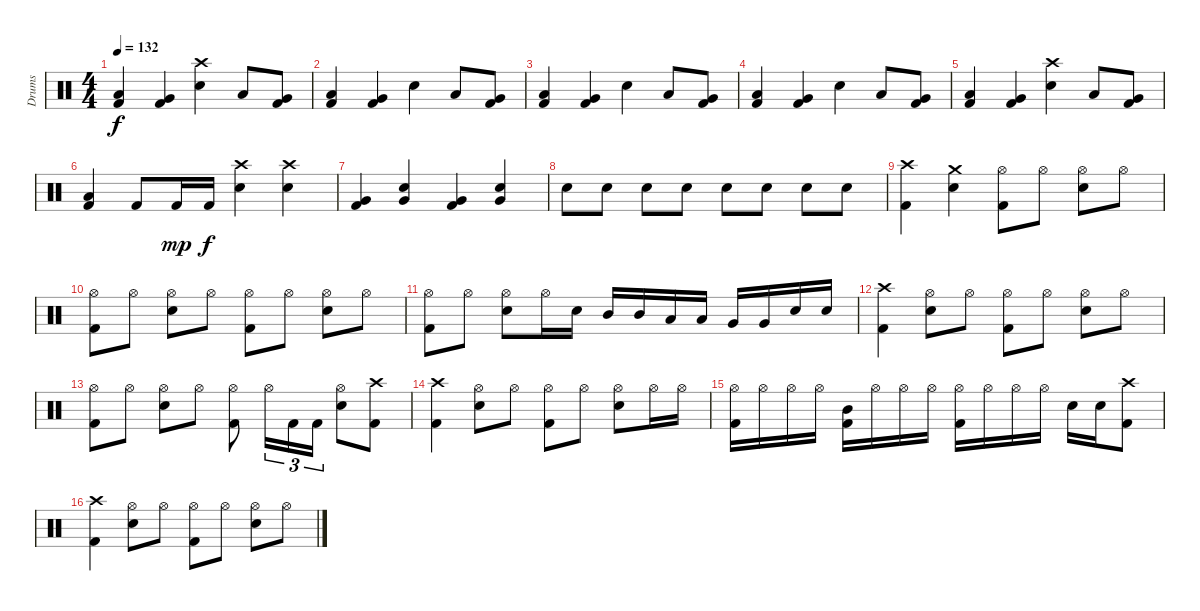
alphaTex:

\track ("Drums" "Drums") {instrument percussion}
\staff {score}
\articulation defaults
\ts (4 4)
\tempo 132
\clef neutral
\ks c
("Low Floor Tom (hit)" "Kick (hit) 2").4{dy f} ("Very Low Tom (hit)" "Kick (hit) 2").4 ("Crash high (hit)" "Snare (hit) 2").4 "Low Tom (hit)".8 ("Very Low Tom (hit)" "Kick (hit) 2").8 |
("Low Floor Tom (hit)" "Kick (hit) 2").4 ("Very Low Tom (hit)" "Kick (hit) 2").4 "Snare (hit) 2".4 "Low Tom (hit)".8 ("Very Low Tom (hit)" "Kick (hit) 2").8 |
("Low Floor Tom (hit)" "Kick (hit) 2").4 ("Very Low Tom (hit)" "Kick (hit) 2").4 "Snare (hit) 2".4 "Low Tom (hit)".8 ("Very Low Tom (hit)" "Kick (hit) 2").8 |
("Low Floor Tom (hit)" "Kick (hit) 2").4 ("Very Low Tom (hit)" "Kick (hit) 2").4 "Snare (hit) 2".4 "Low Tom (hit)".8 ("Very Low Tom (hit)" "Kick (hit) 2").8 |
("Low Floor Tom (hit)" "Kick (hit) 2").4 ("Very Low Tom (hit)" "Kick (hit) 2").4 ("Crash high (hit)" "Snare (hit) 2").4 "Low Tom (hit)".8 ("Very Low Tom (hit)" "Kick (hit) 2").8 |
("Low Floor Tom (hit)" "Kick (hit) 2").4 "Kick (hit) 2".8 "Kick (hit) 2".16{dy mp} "Kick (hit) 2".16{dy f} ("Crash high (hit)" "Snare (hit) 2").4 ("Crash high (hit)" "Snare (hit) 2").4 |
("Very Low Tom (hit)" "Kick (hit) 2").4 ("Very Low Tom (hit)" "Snare (hit) 2").4 ("Very Low Tom (hit)" "Kick (hit) 2").4 ("Very Low Tom (hit)" "Snare (hit) 2").4 |
"Snare (hit) 2".8 "Snare (hit) 2".8 "Snare (hit) 2".8 "Snare (hit) 2".8 "Snare (hit) 2".8 "Snare (hit) 2".8 "Snare (hit) 2".8 "Snare (hit) 2".8 |
("Crash high (hit)" "Kick (hit) 2").4 ("Crash medium (hit)" "Snare (hit) 2").4 ("Hi-Hat (open)" "Kick (hit) 2").8 "Hi-Hat (open)".8 ("Hi-Hat (open)" "Snare (hit) 2").8 "Hi-Hat (open)".8 |
("Hi-Hat (open)" "Kick (hit) 2").8 "Hi-Hat (open)".8 ("Hi-Hat (open)" "Snare (hit) 2").8 "Hi-Hat (open)".8 ("Hi-Hat (open)" "Kick (hit) 2").8 "Hi-Hat (open)".8 ("Hi-Hat (open)" "Snare (hit) 2").8 "Hi-Hat (open)".8 |
("Hi-Hat (open)" "Kick (hit) 2").8 "Hi-Hat (open)".8 ("Hi-Hat (open)" "Snare (hit) 2").8 "Hi-Hat (open)".16 "Snare (hit) 2".16 "Mid Tom (hit)".16 "Mid Tom (hit)".16 "Low Tom (hit)".16 "Low Tom (hit)".16 "Very Low Tom (hit)".16 "Very Low Tom (hit)".16 "Snare (hit) 2".16 "Snare (hit) 2".16 |
("Crash high (hit)" "Kick (hit) 2").4 ("Hi-Hat (open)" "Snare (hit) 2").8 "Hi-Hat (open)".8 ("Hi-Hat (open)" "Kick (hit) 2").8 "Hi-Hat (open)".8 ("Hi-Hat (open)" "Snare (hit) 2").8 "Hi-Hat (open)".8 |
("Hi-Hat (open)" "Kick (hit) 2").8 "Hi-Hat (open)".8 ("Hi-Hat (open)" "Snare (hit) 2").8 "Hi-Hat (open)".8 ("Hi-Hat (open)" "Kick (hit) 2").8 "Hi-Hat (open)".16{tu (3 2)} "Kick (hit) 2".16{tu (3 2)} "Kick (hit) 2".16{tu (3 2)} ("Hi-Hat (open)" "Snare (hit) 2").8 ("Crash high (hit)" "Kick (hit) 2").8 |
("Crash high (hit)" "Kick (hit) 2").4 ("Hi-Hat (open)" "Snare (hit) 2").8 "Hi-Hat (open)".8 ("Hi-Hat (open)" "Kick (hit) 2").8 "Hi-Hat (open)".8 ("Hi-Hat (open)" "Snare (hit) 2").8 "Hi-Hat (open)".16 "Hi-Hat (open)".16 |
("Hi-Hat (open)" "Kick (hit) 2").16 "Hi-Hat (open)".16 "Hi-Hat (open)".16 "Hi-Hat (open)".16 ("Mid Tom (hit)" "Kick (hit) 2").16 "Hi-Hat (open)".16 "Hi-Hat (open)".16 "Hi-Hat (open)".16 ("Hi-Hat (open)" "Kick (hit) 2").16 "Hi-Hat (open)".16 "Hi-Hat (open)".16 "Hi-Hat (open)".16 "Snare (hit) 2".16 "Snare (hit) 2".16 ("Crash high (hit)" "Kick (hit) 2").8 |
("Crash high (hit)" "Kick (hit) 2").4 ("Hi-Hat (open)" "Snare (hit) 2").8 "Hi-Hat (open)".8 ("Hi-Hat (open)" "Kick (hit) 2").8 "Hi-Hat (open)".8 ("Hi-Hat (open)" "Snare (hit) 2").8 "Hi-Hat (open)".8
